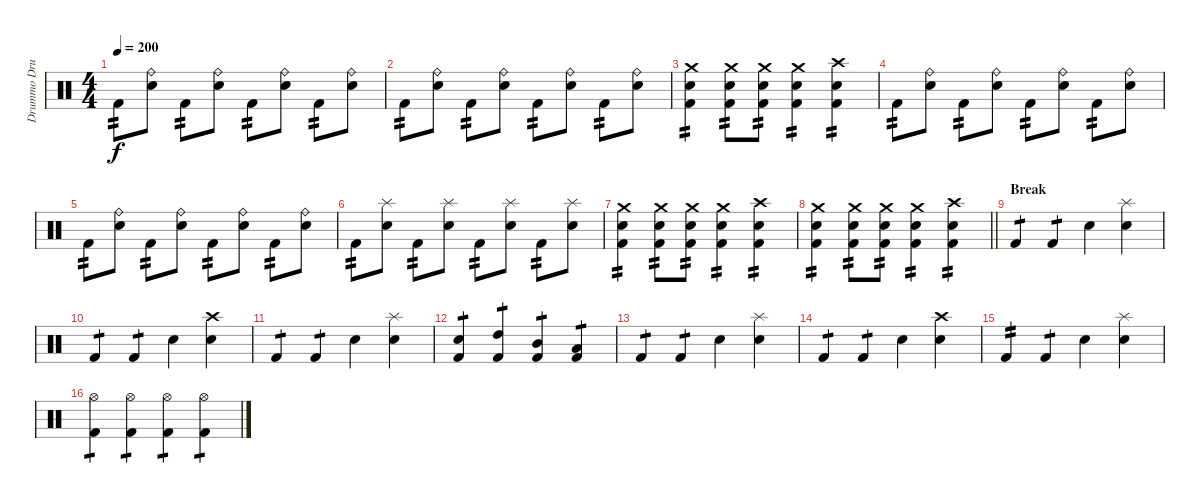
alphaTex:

\track ("Drummo Drummer" "Drummo Dru") {instrument percussion}
\staff {score}
\articulation defaults
\ts (4 4)
\tempo 200
\clef neutral
\ks c "Kick (hit) 2".8{tp 2 dy f}
("Ride (bell)" "Electric Snare (hit)").8 "Kick (hit) 2".8{tp 2} ("Ride (bell)" "Electric Snare (hit)").8 "Kick (hit) 2".8{tp 2} ("Ride (bell)" "Electric Snare (hit)").8 "Kick (hit) 2".8{tp 2} ("Ride (bell)" "Electric Snare (hit)").8 |
"Kick (hit) 2".8{tp 2} ("Ride (bell)" "Electric Snare (hit)").8 "Kick (hit) 2".8{tp 2} ("Ride (bell)" "Electric Snare (hit)").8 "Kick (hit) 2".8{tp 2} ("Ride (bell)" "Electric Snare (hit)").8 "Kick (hit) 2".8{tp 2} ("Ride (bell)" "Electric Snare (hit)").8 |
("Crash medium (hit)" "Electric Snare (hit)" "Kick (hit) 2").4{tp 2} ("Crash medium (hit)" "Electric Snare (hit)" "Kick (hit) 2").8{tp 2} ("Crash medium (hit)" "Electric Snare (hit)" "Kick (hit) 2").8{tp 2} ("Crash medium (hit)" "Electric Snare (hit)" "Kick (hit) 2").4{tp 2} ("Crash high (hit)" "Electric Snare (hit)" "Kick (hit) 2").4{tp 2} |
"Kick (hit) 2".8{tp 2} ("Ride (bell)" "Electric Snare (hit)").8 "Kick (hit) 2".8{tp 2} ("Ride (bell)" "Electric Snare (hit)").8 "Kick (hit) 2".8{tp 2} ("Ride (bell)" "Electric Snare (hit)").8 "Kick (hit) 2".8{tp 2} ("Ride (bell)" "Electric Snare (hit)").8 |
"Kick (hit) 2".8{tp 2} ("Ride (bell)" "Electric Snare (hit)").8 "Kick (hit) 2".8{tp 2} ("Ride (bell)" "Electric Snare (hit)").8 "Kick (hit) 2".8{tp 2} ("Ride (bell)" "Electric Snare (hit)").8 "Kick (hit) 2".8{tp 2} ("Ride (bell)" "Electric Snare (hit)").8 |
"Kick (hit) 2".8{tp 2} ("Splash (hit)" "Electric Snare (hit)").8 "Kick (hit) 2".8{tp 2} ("Splash (hit)" "Electric Snare (hit)").8 "Kick (hit) 2".8{tp 2} ("Splash (hit)" "Electric Snare (hit)").8 "Kick (hit) 2".8{tp 2} ("Splash (hit)" "Electric Snare (hit)").8 |
("Crash medium (hit)" "Electric Snare (hit)" "Kick (hit) 2").4{tp 2} ("Crash medium (hit)" "Electric Snare (hit)" "Kick (hit) 2").8{tp 2} ("Crash medium (hit)" "Electric Snare (hit)" "Kick (hit) 2").8{tp 2} ("Crash medium (hit)" "Electric Snare (hit)" "Kick (hit) 2").4{tp 2} ("Crash high (hit)" "Electric Snare (hit)" "Kick (hit) 2").4{tp 2} |
\barLineRight lightlight
("Crash medium (hit)" "Electric Snare (hit)" "Kick (hit) 2").4{tp 2} ("Crash medium (hit)" "Electric Snare (hit)" "Kick (hit) 2").8{tp 2} ("Crash medium (hit)" "Electric Snare (hit)" "Kick (hit) 2").8{tp 2} ("Crash medium (hit)" "Electric Snare (hit)" "Kick (hit) 2").4{tp 2} ("Crash high (hit)" "Electric Snare (hit)" "Kick (hit) 2").4{tp 2} |
\section ("" "Break")
"Kick (hit) 2".4{tp 1} "Kick (hit) 2".4{tp 1} "Electric Snare (hit)".4 ("Splash (hit)" "Electric Snare (hit)").4 |
"Kick (hit) 2".4{tp 1} "Kick (hit) 2".4{tp 1} "Electric Snare (hit)".4 ("Crash high (hit)" "Electric Snare (hit)").4 |
"Kick (hit) 2".4{tp 1} "Kick (hit) 2".4{tp 1} "Electric Snare (hit)".4 ("Splash (hit)" "Electric Snare (hit)").4 |
("Electric Snare (hit)" "Kick (hit) 2").4{tp 1} ("High Tom (hit)" "Kick (hit) 2").4{tp 1} ("Mid Tom (hit)" "Kick (hit) 2").4{tp 1} ("Low Tom (hit)" "Kick (hit) 2").4{tp 1} |
"Kick (hit) 2".4{tp 1} "Kick (hit) 2".4{tp 1} "Electric Snare (hit)".4 ("Splash (hit)" "Electric Snare (hit)").4 |
"Kick (hit) 2".4{tp 1} "Kick (hit) 2".4{tp 1} "Electric Snare (hit)".4 ("Crash high (hit)" "Electric Snare (hit)").4 |
"Kick (hit) 2".4{tp 2} "Kick (hit) 2".4{tp 1} "Electric Snare (hit)".4 ("Splash (hit)" "Electric Snare (hit)").4 |
("Hi-Hat (open)" "Kick (hit) 2").4{tp 1} ("Hi-Hat (open)" "Kick (hit) 2").4{tp 1} ("Hi-Hat (open)" "Kick (hit) 2").4{tp 1} ("Hi-Hat (open)" "Kick (hit) 2").4{tp 1}
